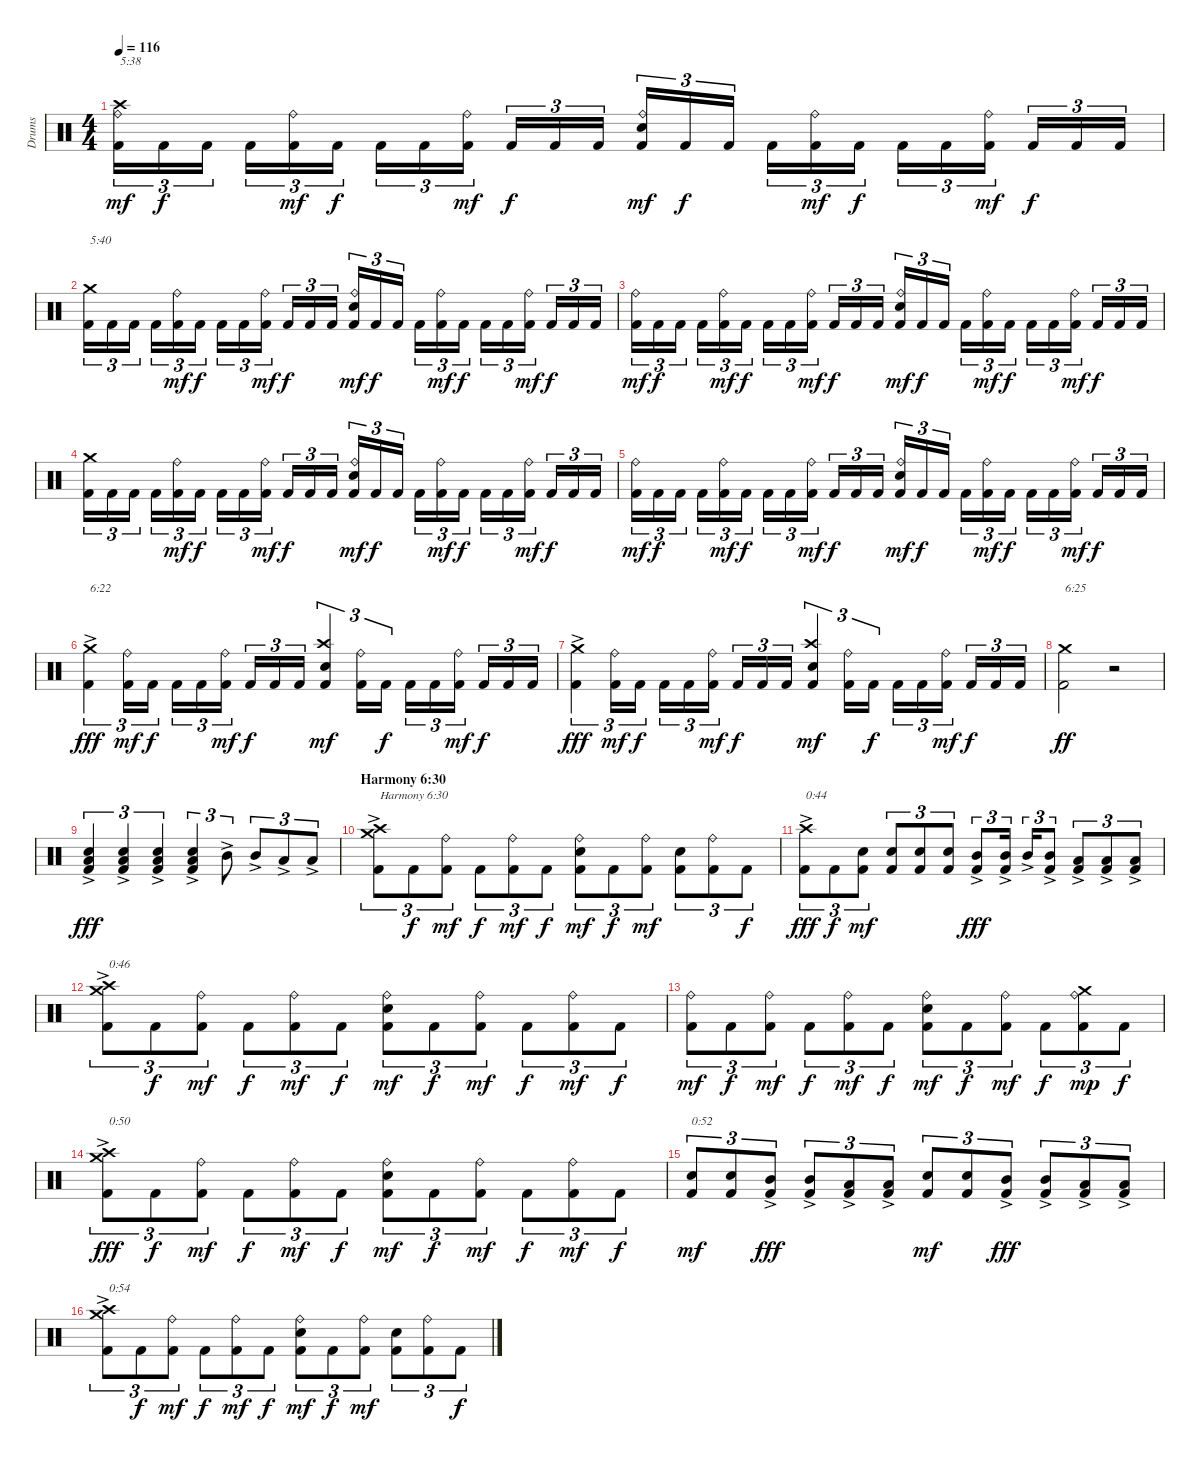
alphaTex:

\track ("Drums" "Drums") {instrument percussion}
\staff {score}
\articulation defaults
\ts (4 4)
\tempo 116
\clef neutral
\ks c
("Kick (hit) 2" "Ride (bell)" "Crash high (hit)").16{tu (3 2) txt "5:38" dy mf} "Kick (hit) 2".16{tu (3 2) dy f} "Kick (hit) 2".16{tu (3 2)} "Kick (hit) 2".16{tu (3 2)} ("Kick (hit) 2" "Ride (bell)").16{tu (3 2) dy mf} "Kick (hit) 2".16{tu (3 2) dy f} "Kick (hit) 2".16{tu (3 2)} "Kick (hit) 2".16{tu (3 2)} ("Kick (hit) 2" "Ride (bell)").16{tu (3 2) dy mf} "Kick (hit) 2".16{tu (3 2) dy f} "Kick (hit) 2".16{tu (3 2)} "Kick (hit) 2".16{tu (3 2)} ("Kick (hit) 2" "Electric Snare (hit)" "Ride (bell)").16{tu (3 2) dy mf} "Kick (hit) 2".16{tu (3 2) dy f} "Kick (hit) 2".16{tu (3 2)} "Kick (hit) 2".16{tu (3 2)} ("Kick (hit) 2" "Ride (bell)").16{tu (3 2) dy mf} "Kick (hit) 2".16{tu (3 2) dy f} "Kick (hit) 2".16{tu (3 2)} "Kick (hit) 2".16{tu (3 2)} ("Kick (hit) 2" "Ride (bell)").16{tu (3 2) dy mf} "Kick (hit) 2".16{tu (3 2) dy f} "Kick (hit) 2".16{tu (3 2)} "Kick (hit) 2".16{tu (3 2)} |
("Kick (hit) 2" "Crash medium (hit)").16{tu (3 2) txt "5:40"} "Kick (hit) 2".16{tu (3 2)} "Kick (hit) 2".16{tu (3 2)} "Kick (hit) 2".16{tu (3 2)} ("Kick (hit) 2" "Ride (bell)").16{tu (3 2) dy mf} "Kick (hit) 2".16{tu (3 2) dy f} "Kick (hit) 2".16{tu (3 2)} "Kick (hit) 2".16{tu (3 2)} ("Kick (hit) 2" "Ride (bell)").16{tu (3 2) dy mf} "Kick (hit) 2".16{tu (3 2) dy f} "Kick (hit) 2".16{tu (3 2)} "Kick (hit) 2".16{tu (3 2)} ("Kick (hit) 2" "Electric Snare (hit)" "Ride (bell)").16{tu (3 2) dy mf} "Kick (hit) 2".16{tu (3 2) dy f} "Kick (hit) 2".16{tu (3 2)} "Kick (hit) 2".16{tu (3 2)} ("Kick (hit) 2" "Ride (bell)").16{tu (3 2) dy mf} "Kick (hit) 2".16{tu (3 2) dy f} "Kick (hit) 2".16{tu (3 2)} "Kick (hit) 2".16{tu (3 2)} ("Kick (hit) 2" "Ride (bell)").16{tu (3 2) dy mf} "Kick (hit) 2".16{tu (3 2) dy f} "Kick (hit) 2".16{tu (3 2)} "Kick (hit) 2".16{tu (3 2)} |
("Kick (hit) 2" "Ride (bell)").16{tu (3 2) dy mf} "Kick (hit) 2".16{tu (3 2) dy f} "Kick (hit) 2".16{tu (3 2)} "Kick (hit) 2".16{tu (3 2)} ("Kick (hit) 2" "Ride (bell)").16{tu (3 2) dy mf} "Kick (hit) 2".16{tu (3 2) dy f} "Kick (hit) 2".16{tu (3 2)} "Kick (hit) 2".16{tu (3 2)} ("Kick (hit) 2" "Ride (bell)").16{tu (3 2) dy mf} "Kick (hit) 2".16{tu (3 2) dy f} "Kick (hit) 2".16{tu (3 2)} "Kick (hit) 2".16{tu (3 2)} ("Kick (hit) 2" "Electric Snare (hit)" "Ride (bell)").16{tu (3 2) dy mf} "Kick (hit) 2".16{tu (3 2) dy f} "Kick (hit) 2".16{tu (3 2)} "Kick (hit) 2".16{tu (3 2)} ("Kick (hit) 2" "Ride (bell)").16{tu (3 2) dy mf} "Kick (hit) 2".16{tu (3 2) dy f} "Kick (hit) 2".16{tu (3 2)} "Kick (hit) 2".16{tu (3 2)} ("Kick (hit) 2" "Ride (bell)").16{tu (3 2) dy mf} "Kick (hit) 2".16{tu (3 2) dy f} "Kick (hit) 2".16{tu (3 2)} "Kick (hit) 2".16{tu (3 2)} |
("Kick (hit) 2" "Crash medium (hit)").16{tu (3 2)} "Kick (hit) 2".16{tu (3 2)} "Kick (hit) 2".16{tu (3 2)} "Kick (hit) 2".16{tu (3 2)} ("Kick (hit) 2" "Ride (bell)").16{tu (3 2) dy mf} "Kick (hit) 2".16{tu (3 2) dy f} "Kick (hit) 2".16{tu (3 2)} "Kick (hit) 2".16{tu (3 2)} ("Kick (hit) 2" "Ride (bell)").16{tu (3 2) dy mf} "Kick (hit) 2".16{tu (3 2) dy f} "Kick (hit) 2".16{tu (3 2)} "Kick (hit) 2".16{tu (3 2)} ("Kick (hit) 2" "Electric Snare (hit)" "Ride (bell)").16{tu (3 2) dy mf} "Kick (hit) 2".16{tu (3 2) dy f} "Kick (hit) 2".16{tu (3 2)} "Kick (hit) 2".16{tu (3 2)} ("Kick (hit) 2" "Ride (bell)").16{tu (3 2) dy mf} "Kick (hit) 2".16{tu (3 2) dy f} "Kick (hit) 2".16{tu (3 2)} "Kick (hit) 2".16{tu (3 2)} ("Kick (hit) 2" "Ride (bell)").16{tu (3 2) dy mf} "Kick (hit) 2".16{tu (3 2) dy f} "Kick (hit) 2".16{tu (3 2)} "Kick (hit) 2".16{tu (3 2)} |
("Kick (hit) 2" "Ride (bell)").16{tu (3 2) dy mf} "Kick (hit) 2".16{tu (3 2) dy f} "Kick (hit) 2".16{tu (3 2)} "Kick (hit) 2".16{tu (3 2)} ("Kick (hit) 2" "Ride (bell)").16{tu (3 2) dy mf} "Kick (hit) 2".16{tu (3 2) dy f} "Kick (hit) 2".16{tu (3 2)} "Kick (hit) 2".16{tu (3 2)} ("Kick (hit) 2" "Ride (bell)").16{tu (3 2) dy mf} "Kick (hit) 2".16{tu (3 2) dy f} "Kick (hit) 2".16{tu (3 2)} "Kick (hit) 2".16{tu (3 2)} ("Kick (hit) 2" "Electric Snare (hit)" "Ride (bell)").16{tu (3 2) dy mf} "Kick (hit) 2".16{tu (3 2) dy f} "Kick (hit) 2".16{tu (3 2)} "Kick (hit) 2".16{tu (3 2)} ("Kick (hit) 2" "Ride (bell)").16{tu (3 2) dy mf} "Kick (hit) 2".16{tu (3 2) dy f} "Kick (hit) 2".16{tu (3 2)} "Kick (hit) 2".16{tu (3 2)} ("Kick (hit) 2" "Ride (bell)").16{tu (3 2) dy mf} "Kick (hit) 2".16{tu (3 2) dy f} "Kick (hit) 2".16{tu (3 2)} "Kick (hit) 2".16{tu (3 2)} |
("Kick (hit) 2" "Crash medium (hit)"{ac}).4{tu (3 2) txt "6:22" dy fff} ("Kick (hit) 2" "Ride (bell)").16{tu (3 2) dy mf} "Kick (hit) 2".16{tu (3 2) dy f} "Kick (hit) 2".16{tu (3 2)} "Kick (hit) 2".16{tu (3 2)} ("Kick (hit) 2" "Ride (bell)").16{tu (3 2) dy mf} "Kick (hit) 2".16{tu (3 2) dy f} "Kick (hit) 2".16{tu (3 2)} "Kick (hit) 2".16{tu (3 2)} ("Kick (hit) 2" "Electric Snare (hit)" "Crash high (hit)").4{tu (3 2) dy mf} ("Kick (hit) 2" "Ride (bell)").16{tu (3 2)} "Kick (hit) 2".16{tu (3 2) dy f} "Kick (hit) 2".16{tu (3 2)} "Kick (hit) 2".16{tu (3 2)} ("Kick (hit) 2" "Ride (bell)").16{tu (3 2) dy mf} "Kick (hit) 2".16{tu (3 2) dy f} "Kick (hit) 2".16{tu (3 2)} "Kick (hit) 2".16{tu (3 2)} |
("Kick (hit) 2" "Crash medium (hit)"{ac}).4{tu (3 2) dy fff} ("Kick (hit) 2" "Ride (bell)").16{tu (3 2) dy mf} "Kick (hit) 2".16{tu (3 2) dy f} "Kick (hit) 2".16{tu (3 2)} "Kick (hit) 2".16{tu (3 2)} ("Kick (hit) 2" "Ride (bell)").16{tu (3 2) dy mf} "Kick (hit) 2".16{tu (3 2) dy f} "Kick (hit) 2".16{tu (3 2)} "Kick (hit) 2".16{tu (3 2)} ("Kick (hit) 2" "Electric Snare (hit)" "Crash high (hit)").4{tu (3 2) dy mf} ("Kick (hit) 2" "Ride (bell)").16{tu (3 2)} "Kick (hit) 2".16{tu (3 2) dy f} "Kick (hit) 2".16{tu (3 2)} "Kick (hit) 2".16{tu (3 2)} ("Kick (hit) 2" "Ride (bell)").16{tu (3 2) dy mf} "Kick (hit) 2".16{tu (3 2) dy f} "Kick (hit) 2".16{tu (3 2)} "Kick (hit) 2".16{tu (3 2)} |
("Kick (hit) 2" "Crash medium (hit)").2{txt "6:25" dy ff} r.2 |
("Kick (hit) 2" "Low Tom (hit)"{ac} "Electric Snare (hit)").4{tu (3 2) dy fff} ("Kick (hit) 2" "Low Tom (hit)"{ac} "Electric Snare (hit)").4{tu (3 2)} ("Kick (hit) 2" "Low Tom (hit)"{ac} "Electric Snare (hit)").4{tu (3 2)} ("Kick (hit) 2" "Low Tom (hit)"{ac} "Electric Snare (hit)").4{tu (3 2)} "Mid Tom (hit)"{ac}.8{tu (3 2)} "Mid Tom (hit)"{ac}.8{tu (3 2)} "Low Tom (hit)"{ac}.8{tu (3 2)} "Low Tom (hit)"{ac}.8{tu (3 2)} |
\section ("" "Harmony 6:30")
("Kick (hit) 2" "Crash medium (hit)"{ac} "Crash high (hit)"{ac}).8{tu (3 2) txt "Harmony 6:30"} "Kick (hit) 2".8{tu (3 2) dy f} ("Kick (hit) 2" "Ride (bell)").8{tu (3 2) dy mf} "Kick (hit) 2".8{tu (3 2) dy f} ("Kick (hit) 2" "Ride (bell)").8{tu (3 2) dy mf} "Kick (hit) 2".8{tu (3 2) dy f} ("Kick (hit) 2" "Electric Snare (hit)" "Ride (bell)").8{tu (3 2) dy mf} "Kick (hit) 2".8{tu (3 2) dy f} ("Kick (hit) 2" "Ride (bell)").8{tu (3 2) dy mf} ("Kick (hit) 2" "Electric Snare (hit)").8{tu (3 2)} ("Kick (hit) 2" "Ride (bell)").8{tu (3 2)} "Kick (hit) 2".8{tu (3 2) dy f} |
("Kick (hit) 2" "Crash high (hit)"{ac}).8{tu (3 2) txt "0:44" dy fff} "Kick (hit) 2".8{tu (3 2) dy f} ("Kick (hit) 2" "Electric Snare (hit)").8{tu (3 2) dy mf} ("Kick (hit) 2" "Electric Snare (hit)").8{tu (3 2)} ("Kick (hit) 2" "Electric Snare (hit)").8{tu (3 2)} ("Kick (hit) 2" "Electric Snare (hit)").8{tu (3 2)} ("Kick (hit) 2" "Mid Tom (hit)"{ac}).8{tu (3 2) dy fff} ("Kick (hit) 2" "Mid Tom (hit)"{ac}).16{tu (3 2)} "Mid Tom (hit)"{ac}.16{tu (3 2)} ("Kick (hit) 2" "Mid Tom (hit)"{ac}).8{tu (3 2)} ("Kick (hit) 2" "Low Tom (hit)"{ac}).8{tu (3 2)} ("Kick (hit) 2" "Low Tom (hit)"{ac}).8{tu (3 2)} ("Kick (hit) 2" "Low Tom (hit)"{ac}).8{tu (3 2)} |
("Kick (hit) 2" "Crash medium (hit)"{ac} "Crash high (hit)"{ac}).8{tu (3 2) txt "0:46"} "Kick (hit) 2".8{tu (3 2) dy f} ("Kick (hit) 2" "Ride (bell)").8{tu (3 2) dy mf} "Kick (hit) 2".8{tu (3 2) dy f} ("Kick (hit) 2" "Ride (bell)").8{tu (3 2) dy mf} "Kick (hit) 2".8{tu (3 2) dy f} ("Kick (hit) 2" "Electric Snare (hit)" "Ride (bell)").8{tu (3 2) dy mf} "Kick (hit) 2".8{tu (3 2) dy f} ("Kick (hit) 2" "Ride (bell)").8{tu (3 2) dy mf} "Kick (hit) 2".8{tu (3 2) dy f} ("Kick (hit) 2" "Ride (bell)").8{tu (3 2) dy mf} "Kick (hit) 2".8{tu (3 2) dy f} |
("Kick (hit) 2" "Ride (bell)").8{tu (3 2) dy mf} "Kick (hit) 2".8{tu (3 2) dy f} ("Kick (hit) 2" "Ride (bell)").8{tu (3 2) dy mf} "Kick (hit) 2".8{tu (3 2) dy f} ("Kick (hit) 2" "Ride (bell)").8{tu (3 2) dy mf} "Kick (hit) 2".8{tu (3 2) dy f} ("Kick (hit) 2" "Electric Snare (hit)" "Ride (bell)").8{tu (3 2) dy mf} "Kick (hit) 2".8{tu (3 2) dy f} ("Kick (hit) 2" "Ride (bell)").8{tu (3 2) dy mf} "Kick (hit) 2".8{tu (3 2) dy f} ("Kick (hit) 2" "Ride (bell)" "Crash medium (hit)").8{tu (3 2) dy mp} "Kick (hit) 2".8{tu (3 2) dy f} |
("Kick (hit) 2" "Crash high (hit)" "Crash medium (hit)"{ac}).8{tu (3 2) txt "0:50" dy fff} "Kick (hit) 2".8{tu (3 2) dy f} ("Kick (hit) 2" "Ride (bell)").8{tu (3 2) dy mf} "Kick (hit) 2".8{tu (3 2) dy f} ("Kick (hit) 2" "Ride (bell)").8{tu (3 2) dy mf} "Kick (hit) 2".8{tu (3 2) dy f} ("Kick (hit) 2" "Electric Snare (hit)" "Ride (bell)").8{tu (3 2) dy mf} "Kick (hit) 2".8{tu (3 2) dy f} ("Kick (hit) 2" "Ride (bell)").8{tu (3 2) dy mf} "Kick (hit) 2".8{tu (3 2) dy f} ("Kick (hit) 2" "Ride (bell)").8{tu (3 2) dy mf} "Kick (hit) 2".8{tu (3 2) dy f} |
("Kick (hit) 2" "Electric Snare (hit)").8{tu (3 2) txt "0:52" dy mf} ("Kick (hit) 2" "Electric Snare (hit)").8{tu (3 2)} ("Kick (hit) 2" "Mid Tom (hit)"{ac}).8{tu (3 2) dy fff} ("Kick (hit) 2" "Mid Tom (hit)"{ac}).8{tu (3 2)} ("Kick (hit) 2" "Low Tom (hit)"{ac}).8{tu (3 2)} ("Kick (hit) 2" "Low Tom (hit)"{ac}).8{tu (3 2)} ("Kick (hit) 2" "Electric Snare (hit)").8{tu (3 2) dy mf} ("Kick (hit) 2" "Electric Snare (hit)").8{tu (3 2)} ("Kick (hit) 2" "Mid Tom (hit)"{ac}).8{tu (3 2) dy fff} ("Kick (hit) 2" "Mid Tom (hit)"{ac}).8{tu (3 2)} ("Kick (hit) 2" "Low Tom (hit)"{ac}).8{tu (3 2)} ("Kick (hit) 2" "Low Tom (hit)"{ac}).8{tu (3 2)} |
("Kick (hit) 2" "Crash medium (hit)"{ac} "Crash high (hit)"{ac}).8{tu (3 2) txt "0:54"} "Kick (hit) 2".8{tu (3 2) dy f} ("Kick (hit) 2" "Ride (bell)").8{tu (3 2) dy mf} "Kick (hit) 2".8{tu (3 2) dy f} ("Kick (hit) 2" "Ride (bell)").8{tu (3 2) dy mf} "Kick (hit) 2".8{tu (3 2) dy f} ("Kick (hit) 2" "Electric Snare (hit)" "Ride (bell)").8{tu (3 2) dy mf} "Kick (hit) 2".8{tu (3 2) dy f} ("Kick (hit) 2" "Ride (bell)").8{tu (3 2) dy mf} ("Kick (hit) 2" "Electric Snare (hit)").8{tu (3 2)} ("Kick (hit) 2" "Ride (bell)").8{tu (3 2)} "Kick (hit) 2".8{tu (3 2) dy f}
